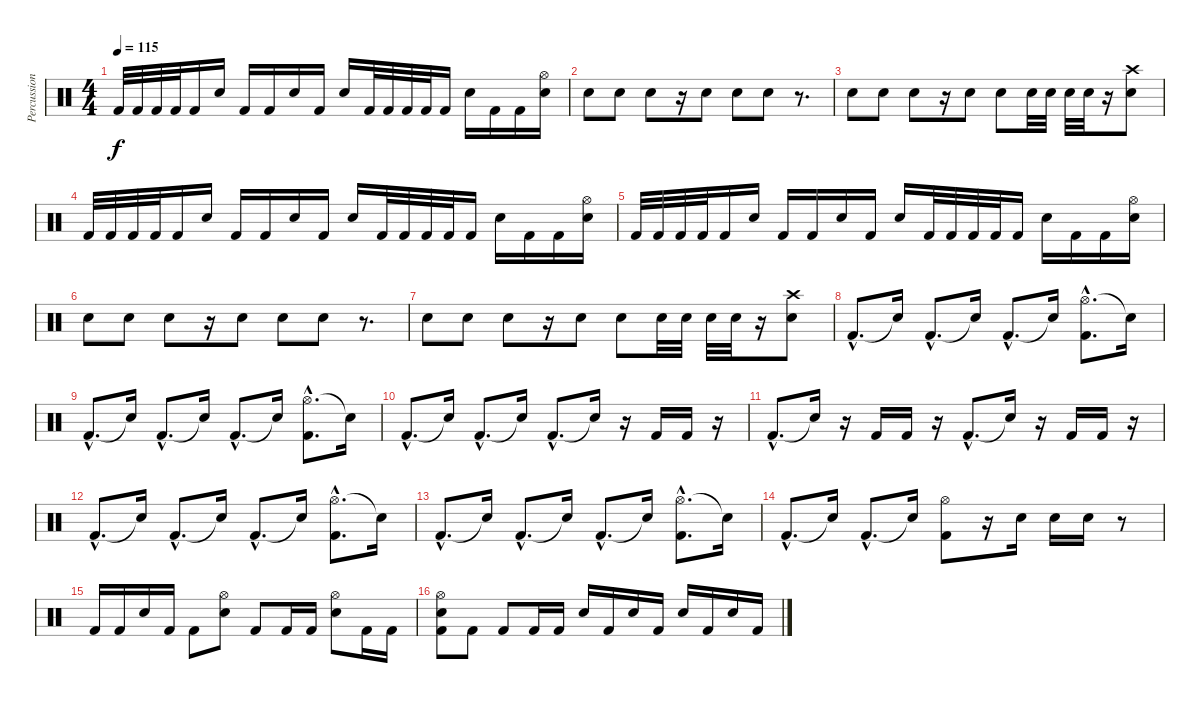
\track ("Percussioni" "Percussion") {instrument percussion}
\staff {score}
\articulation defaults
\ts (4 4)
\tempo 115
\clef neutral
\ks c "Kick (hit) 2".32{dy f} "Kick (hit) 2".32 "Kick (hit) 2".32 "Kick (hit) 2".32 "Kick (hit) 2".16 "Electric Snare (hit)".16 "Kick (hit) 2".16 "Kick (hit) 2".16 "Electric Snare (hit)".16 "Kick (hit) 2".16 "Electric Snare (hit)".16 "Kick (hit) 2".32 "Kick (hit) 2".32 "Kick (hit) 2".32 "Kick (hit) 2".32 "Kick (hit) 2".16 "Electric Snare (hit)".16 "Kick (hit) 2".16 "Kick (hit) 2".16
("Hi-Hat (open)" "Electric Snare (hit)").16 |
"Electric Snare (hit)".8 "Electric Snare (hit)".8 "Electric Snare (hit)".8 r.16 "Electric Snare (hit)".8 "Electric Snare (hit)".8 "Electric Snare (hit)".8 r.8{d} |
"Electric Snare (hit)".8 "Electric Snare (hit)".8 "Electric Snare (hit)".8 r.16 "Electric Snare (hit)".8 "Electric Snare (hit)".8 "Electric Snare (hit)".32 "Electric Snare (hit)".32 "Electric Snare (hit)".32 "Electric Snare (hit)".32 r.16 ("Crash high (hit)" "Electric Snare (hit)").8 |
"Kick (hit) 2".32 "Kick (hit) 2".32 "Kick (hit) 2".32 "Kick (hit) 2".32 "Kick (hit) 2".16 "Electric Snare (hit)".16 "Kick (hit) 2".16 "Kick (hit) 2".16 "Electric Snare (hit)".16 "Kick (hit) 2".16 "Electric Snare (hit)".16 "Kick (hit) 2".32 "Kick (hit) 2".32 "Kick (hit) 2".32 "Kick (hit) 2".32 "Kick (hit) 2".16 "Electric Snare (hit)".16 "Kick (hit) 2".16 "Kick (hit) 2".16 ("Hi-Hat (open)" "Electric Snare (hit)").16 |
"Kick (hit) 2".32 "Kick (hit) 2".32 "Kick (hit) 2".32 "Kick (hit) 2".32 "Kick (hit) 2".16 "Electric Snare (hit)".16 "Kick (hit) 2".16 "Kick (hit) 2".16 "Electric Snare (hit)".16 "Kick (hit) 2".16 "Electric Snare (hit)".16 "Kick (hit) 2".32 "Kick (hit) 2".32 "Kick (hit) 2".32 "Kick (hit) 2".32 "Kick (hit) 2".16 "Electric Snare (hit)".16 "Kick (hit) 2".16 "Kick (hit) 2".16 ("Hi-Hat (open)" "Electric Snare (hit)").16 |
"Electric Snare (hit)".8 "Electric Snare (hit)".8 "Electric Snare (hit)".8 r.16 "Electric Snare (hit)".8 "Electric Snare (hit)".8 "Electric Snare (hit)".8 r.8{d} |
"Electric Snare (hit)".8 "Electric Snare (hit)".8 "Electric Snare (hit)".8 r.16 "Electric Snare (hit)".8 "Electric Snare (hit)".8 "Electric Snare (hit)".32 "Electric Snare (hit)".32 "Electric Snare (hit)".32 "Electric Snare (hit)".32 r.16 ("Crash high (hit)" "Electric Snare (hit)").8 |
"Kick (hit) 2"{hac}.8{d} "Snare (hit)"{t}.16 "Kick (hit) 2"{hac}.8{d} "Snare (hit)"{t}.16 "Kick (hit) 2"{hac}.8{d} "Snare (hit)"{t}.16 ("Hi-Hat (open)"{hac} "Kick (hit) 2"{hac}).8{d} "Snare (hit)"{t}.16 |
"Kick (hit) 2"{hac}.8{d} "Snare (hit)"{t}.16 "Kick (hit) 2"{hac}.8{d} "Snare (hit)"{t}.16 "Kick (hit) 2"{hac}.8{d} "Snare (hit)"{t}.16 ("Hi-Hat (open)"{hac} "Kick (hit) 2"{hac}).8{d} "Snare (hit)"{t}.16 |
"Kick (hit) 2"{hac}.8{d} "Snare (hit)"{t}.16 "Kick (hit) 2"{hac}.8{d} "Snare (hit)"{t}.16 "Kick (hit) 2"{hac}.8{d} "Snare (hit)"{t}.16 r.16 "Kick (hit) 2".16 "Kick (hit) 2".16 r.16 |
"Kick (hit) 2"{hac}.8{d} "Snare (hit)"{t}.16 r.16 "Kick (hit) 2".16 "Kick (hit) 2".16 r.16 "Kick (hit) 2"{hac}.8{d} "Snare (hit)"{t}.16 r.16 "Kick (hit) 2".16 "Kick (hit) 2".16 r.16 |
"Kick (hit) 2"{hac}.8{d} "Snare (hit)"{t}.16 "Kick (hit) 2"{hac}.8{d} "Snare (hit)"{t}.16 "Kick (hit) 2"{hac}.8{d} "Snare (hit)"{t}.16 ("Hi-Hat (open)"{hac} "Kick (hit) 2"{hac}).8{d} "Snare (hit)"{t}.16 |
"Kick (hit) 2"{hac}.8{d} "Snare (hit)"{t}.16 "Kick (hit) 2"{hac}.8{d} "Snare (hit)"{t}.16 "Kick (hit) 2"{hac}.8{d} "Snare (hit)"{t}.16 ("Hi-Hat (open)"{hac} "Kick (hit) 2"{hac}).8{d} "Snare (hit)"{t}.16 |
"Kick (hit) 2"{hac}.8{d} "Snare (hit)"{t}.16 "Kick (hit) 2"{hac}.8{d} "Snare (hit)"{t}.16 ("Hi-Hat (open)" "Kick (hit) 2").8 r.16 "Electric Snare (hit)".16 "Electric Snare (hit)".16 "Electric Snare (hit)".16 r.8 |
"Kick (hit) 2".16 "Kick (hit) 2".16 "Electric Snare (hit)".16 "Kick (hit) 2".16 "Kick (hit) 2".8 ("Hi-Hat (open)" "Electric Snare (hit)").8 "Kick (hit) 2".8 "Kick (hit) 2".16 "Kick (hit) 2".16 ("Hi-Hat (open)" "Electric Snare (hit)").8 "Kick (hit) 2".16 "Kick (hit) 2".16 |
("Hi-Hat (open)" "Electric Snare (hit)" "Kick (hit) 2").8 "Kick (hit) 2".8 "Kick (hit) 2".8 "Kick (hit) 2".16 "Kick (hit) 2".16 "Electric Snare (hit)".16 "Kick (hit) 2".16 "Electric Snare (hit)".16 "Kick (hit) 2".16 "Electric Snare (hit)".16 "Kick (hit) 2".16 "Electric Snare (hit)".16 "Kick (hit) 2".16
